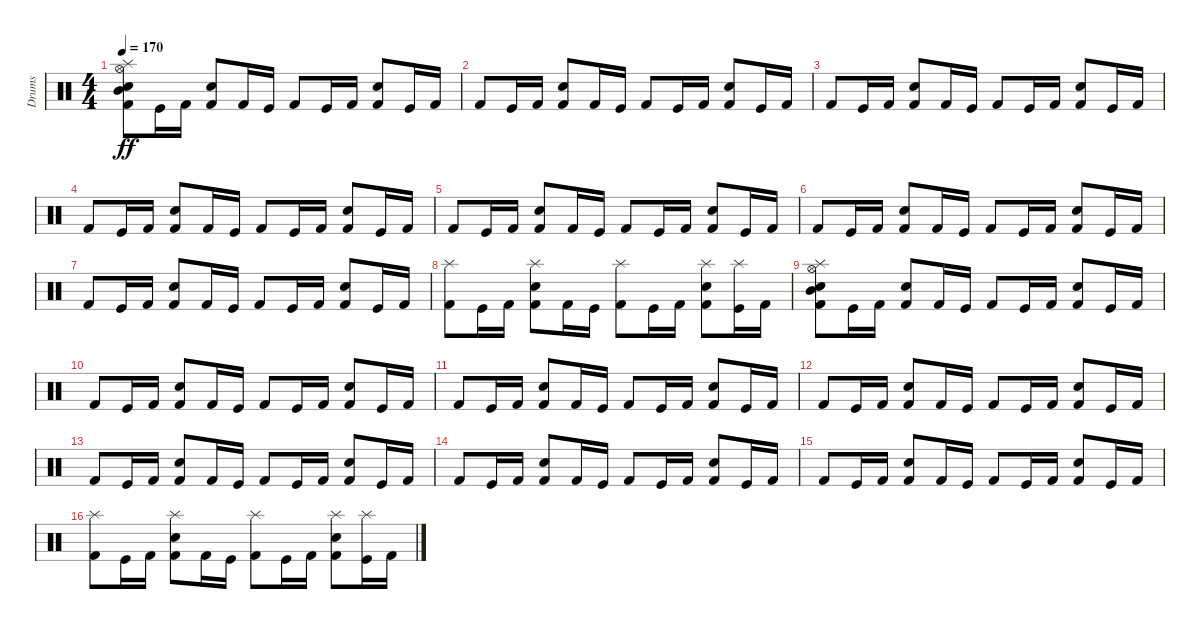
\track ("Drums" "Drums") {instrument percussion}
\staff {score}
\articulation defaults
\ts (4 4)
\tempo 170
\clef neutral
\ks c
("Kick (hit) 2" "Electric Snare (hit)" "Hi-Hat (open)" "Mid Tom (hit)" "Splash (hit)").8{dy ff} "Kick (hit)".16 "Kick (hit) 2".16 ("Kick (hit) 2" "Electric Snare (hit)").8 "Kick (hit) 2".16 "Kick (hit)".16 "Kick (hit) 2".8 "Kick (hit)".16 "Kick (hit) 2".16 ("Kick (hit) 2" "Electric Snare (hit)").8 "Kick (hit)".16 "Kick (hit) 2".16 |
"Kick (hit) 2".8 "Kick (hit)".16 "Kick (hit) 2".16 ("Kick (hit) 2" "Electric Snare (hit)").8 "Kick (hit) 2".16 "Kick (hit)".16 "Kick (hit) 2".8 "Kick (hit)".16 "Kick (hit) 2".16 ("Kick (hit) 2" "Electric Snare (hit)").8 "Kick (hit)".16 "Kick (hit) 2".16 |
"Kick (hit) 2".8 "Kick (hit)".16 "Kick (hit) 2".16 ("Kick (hit) 2" "Electric Snare (hit)").8 "Kick (hit) 2".16 "Kick (hit)".16 "Kick (hit) 2".8 "Kick (hit)".16 "Kick (hit) 2".16 ("Kick (hit) 2" "Electric Snare (hit)").8 "Kick (hit)".16 "Kick (hit) 2".16 |
"Kick (hit) 2".8 "Kick (hit)".16 "Kick (hit) 2".16 ("Kick (hit) 2" "Electric Snare (hit)").8 "Kick (hit) 2".16 "Kick (hit)".16 "Kick (hit) 2".8 "Kick (hit)".16 "Kick (hit) 2".16 ("Kick (hit) 2" "Electric Snare (hit)").8 "Kick (hit)".16 "Kick (hit) 2".16 |
"Kick (hit) 2".8 "Kick (hit)".16 "Kick (hit) 2".16 ("Kick (hit) 2" "Electric Snare (hit)").8 "Kick (hit) 2".16 "Kick (hit)".16 "Kick (hit) 2".8 "Kick (hit)".16 "Kick (hit) 2".16 ("Kick (hit) 2" "Electric Snare (hit)").8 "Kick (hit)".16 "Kick (hit) 2".16 |
"Kick (hit) 2".8 "Kick (hit)".16 "Kick (hit) 2".16 ("Kick (hit) 2" "Electric Snare (hit)").8 "Kick (hit) 2".16 "Kick (hit)".16 "Kick (hit) 2".8 "Kick (hit)".16 "Kick (hit) 2".16 ("Kick (hit) 2" "Electric Snare (hit)").8 "Kick (hit)".16 "Kick (hit) 2".16 |
"Kick (hit) 2".8 "Kick (hit)".16 "Kick (hit) 2".16 ("Kick (hit) 2" "Electric Snare (hit)").8 "Kick (hit) 2".16 "Kick (hit)".16 "Kick (hit) 2".8 "Kick (hit)".16 "Kick (hit) 2".16 ("Kick (hit) 2" "Electric Snare (hit)").8 "Kick (hit)".16 "Kick (hit) 2".16 |
("Kick (hit) 2" "Splash (hit)").8 "Kick (hit)".16 "Kick (hit) 2".16 ("Kick (hit) 2" "Electric Snare (hit)" "Splash (hit)").8 "Kick (hit) 2".16 "Kick (hit)".16 ("Kick (hit) 2" "Splash (hit)").8 "Kick (hit)".16 "Kick (hit) 2".16 ("Kick (hit) 2" "Electric Snare (hit)" "Splash (hit)").8 ("Kick (hit)" "Splash (hit)").16 "Kick (hit) 2".16 |
("Kick (hit) 2" "Electric Snare (hit)" "Hi-Hat (open)" "Mid Tom (hit)" "Splash (hit)").8 "Kick (hit)".16 "Kick (hit) 2".16 ("Kick (hit) 2" "Electric Snare (hit)").8 "Kick (hit) 2".16 "Kick (hit)".16 "Kick (hit) 2".8 "Kick (hit)".16 "Kick (hit) 2".16 ("Kick (hit) 2" "Electric Snare (hit)").8 "Kick (hit)".16 "Kick (hit) 2".16 |
"Kick (hit) 2".8 "Kick (hit)".16 "Kick (hit) 2".16 ("Kick (hit) 2" "Electric Snare (hit)").8 "Kick (hit) 2".16 "Kick (hit)".16 "Kick (hit) 2".8 "Kick (hit)".16 "Kick (hit) 2".16 ("Kick (hit) 2" "Electric Snare (hit)").8 "Kick (hit)".16 "Kick (hit) 2".16 |
"Kick (hit) 2".8 "Kick (hit)".16 "Kick (hit) 2".16 ("Kick (hit) 2" "Electric Snare (hit)").8 "Kick (hit) 2".16 "Kick (hit)".16 "Kick (hit) 2".8 "Kick (hit)".16 "Kick (hit) 2".16 ("Kick (hit) 2" "Electric Snare (hit)").8 "Kick (hit)".16 "Kick (hit) 2".16 |
"Kick (hit) 2".8 "Kick (hit)".16 "Kick (hit) 2".16 ("Kick (hit) 2" "Electric Snare (hit)").8 "Kick (hit) 2".16 "Kick (hit)".16 "Kick (hit) 2".8 "Kick (hit)".16 "Kick (hit) 2".16 ("Kick (hit) 2" "Electric Snare (hit)").8 "Kick (hit)".16 "Kick (hit) 2".16 |
"Kick (hit) 2".8 "Kick (hit)".16 "Kick (hit) 2".16 ("Kick (hit) 2" "Electric Snare (hit)").8 "Kick (hit) 2".16 "Kick (hit)".16 "Kick (hit) 2".8 "Kick (hit)".16 "Kick (hit) 2".16 ("Kick (hit) 2" "Electric Snare (hit)").8 "Kick (hit)".16 "Kick (hit) 2".16 |
"Kick (hit) 2".8 "Kick (hit)".16 "Kick (hit) 2".16 ("Kick (hit) 2" "Electric Snare (hit)").8 "Kick (hit) 2".16 "Kick (hit)".16 "Kick (hit) 2".8 "Kick (hit)".16 "Kick (hit) 2".16 ("Kick (hit) 2" "Electric Snare (hit)").8 "Kick (hit)".16 "Kick (hit) 2".16 |
"Kick (hit) 2".8 "Kick (hit)".16 "Kick (hit) 2".16 ("Kick (hit) 2" "Electric Snare (hit)").8 "Kick (hit) 2".16 "Kick (hit)".16 "Kick (hit) 2".8 "Kick (hit)".16 "Kick (hit) 2".16 ("Kick (hit) 2" "Electric Snare (hit)").8 "Kick (hit)".16 "Kick (hit) 2".16 |
("Kick (hit) 2" "Splash (hit)").8 "Kick (hit)".16 "Kick (hit) 2".16 ("Kick (hit) 2" "Electric Snare (hit)" "Splash (hit)").8 "Kick (hit) 2".16 "Kick (hit)".16 ("Kick (hit) 2" "Splash (hit)").8 "Kick (hit)".16 "Kick (hit) 2".16 ("Kick (hit) 2" "Electric Snare (hit)" "Splash (hit)").8 ("Kick (hit)" "Splash (hit)").16 "Kick (hit) 2".16
